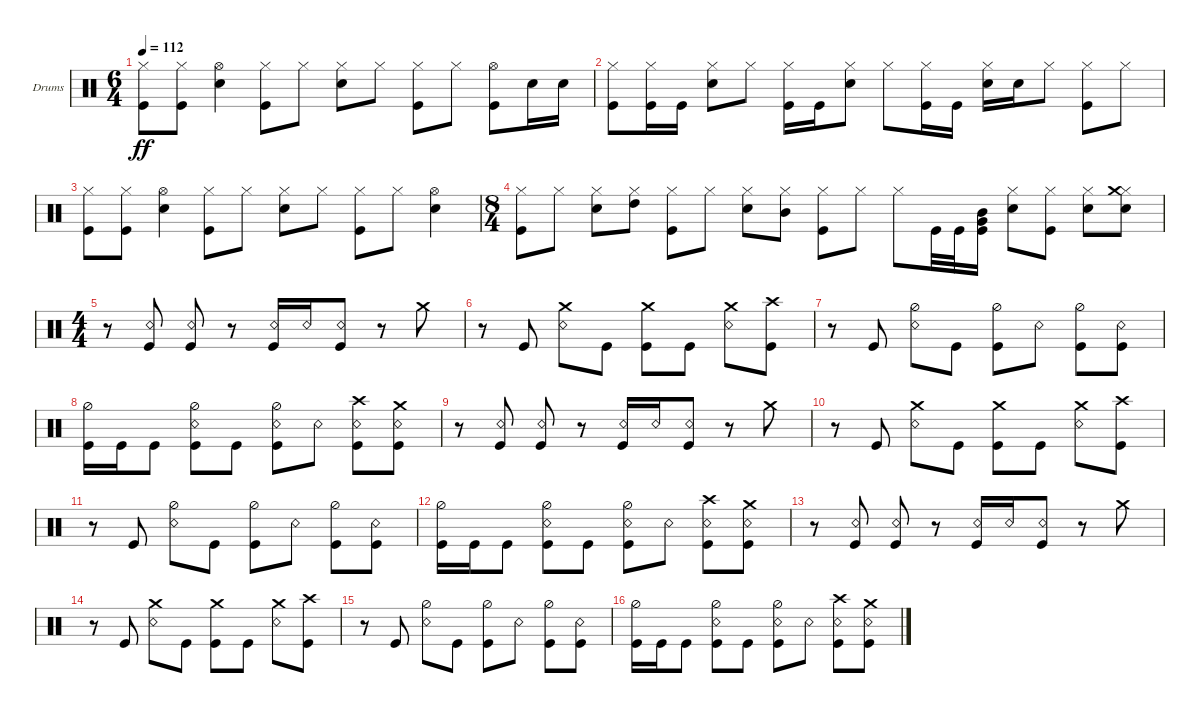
\defaultSystemsLayout 4
\bracketExtendMode groupsimilarinstruments
\firstSystemTrackNameOrientation horizontal
\otherSystemsTrackNameOrientation horizontal
\track ("Drumkit" "Drums") {instrument percussion}
\staff {score}
\articulation defaults
\ts (6 4)
\tempo 112
\clef neutral
\ks c
("Hi-Hat (closed)" "Kick (hit)").8{dy ff} ("Hi-Hat (closed)" "Kick (hit)").8 ("Hi-Hat (open)" "Snare (hit) 2").4 ("Hi-Hat (closed)" "Kick (hit)").8 "Hi-Hat (closed)".8 ("Hi-Hat (closed)" "Snare (hit) 2").8 "Hi-Hat (closed)".8 ("Hi-Hat (closed)" "Kick (hit)").8 "Hi-Hat (closed)".8 ("Kick (hit)" "Hi-Hat (open)").8 "Snare (hit) 2".16 "Snare (hit) 2".16 |
("Kick (hit)" "Hi-Hat (closed)").8 ("Kick (hit)" "Hi-Hat (closed)").16 "Kick (hit)".16 ("Snare (hit) 2" "Hi-Hat (closed)").8 "Hi-Hat (closed)".8 ("Hi-Hat (closed)" "Kick (hit)").16 "Kick (hit)".16 ("Hi-Hat (closed)" "Snare (hit) 2").8 "Hi-Hat (closed)".8 ("Hi-Hat (closed)" "Kick (hit)").16 "Kick (hit)".16 ("Hi-Hat (closed)" "Snare (hit) 2").16 "Snare (hit) 2".16 "Hi-Hat (closed)".8 ("Hi-Hat (closed)" "Kick (hit)").8 "Hi-Hat (closed)".8 |
("Hi-Hat (closed)" "Kick (hit)").8 ("Hi-Hat (closed)" "Kick (hit)").8 ("Hi-Hat (open)" "Snare (hit) 2").4 ("Hi-Hat (closed)" "Kick (hit)").8 "Hi-Hat (closed)".8 ("Hi-Hat (closed)" "Snare (hit) 2").8 "Hi-Hat (closed)".8 ("Hi-Hat (closed)" "Kick (hit)").8 "Hi-Hat (closed)".8 ("Hi-Hat (open)" "Snare (hit) 2").4 |
\ts (8 4)
("Kick (hit)" "Hi-Hat (closed)").8 "Hi-Hat (closed)".8 ("Hi-Hat (closed)" "Snare (hit) 2").8 ("Hi-Hat (closed)" "High Tom (hit)").8 ("Hi-Hat (closed)" "Kick (hit)").8 "Hi-Hat (closed)".8 ("Hi-Hat (closed)" "Snare (hit) 2").8 ("Hi-Hat (closed)" "Mid Tom (hit)").8 ("Hi-Hat (closed)" "Kick (hit)").8 "Hi-Hat (closed)".8 "Hi-Hat (closed)".8 "Kick (hit)".32 "Kick (hit)".32 ("Mid Tom (hit)" "Very Low Tom (hit)" "Kick (hit)").16 ("Snare (hit) 2" "Hi-Hat (closed)").8 ("Kick (hit)" "Hi-Hat (closed)").8 ("Snare (hit) 2" "Hi-Hat (closed)").8 ("Snare (hit) 2" "Hi-Hat (closed)" "Crash medium (hit)").8 |
\ts (4 4)
r.8 ("Snare (rim shot)" "Kick (hit)").8 ("Snare (rim shot)" "Kick (hit)").8 r.8 ("Snare (rim shot)" "Kick (hit)").16 "Snare (rim shot)".16 ("Snare (rim shot)" "Kick (hit)").8 r.8 "Crash medium (hit)".8 |
r.8 "Kick (hit)".8 ("Snare (rim shot)" "Crash medium (hit)").8 "Kick (hit)".8 ("Kick (hit)" "Crash medium (hit)").8 "Kick (hit)".8 ("Snare (rim shot)" "Crash medium (hit)").8 ("Kick (hit)" "Crash high (hit)").8 |
r.8 "Kick (hit)".8 ("Snare (rim shot)" "Hi-Hat (half)").8 "Kick (hit)".8 ("Kick (hit)" "Hi-Hat (half)").8 "Snare (rim shot)".8 ("Kick (hit)" "Hi-Hat (half)").8 ("Snare (rim shot)" "Kick (hit)").8 |
("Kick (hit)" "Hi-Hat (half)").16 "Kick (hit)".16 "Kick (hit)".8 ("Kick (hit)" "Hi-Hat (half)" "Snare (rim shot)").8 "Kick (hit)".8 ("Kick (hit)" "Hi-Hat (half)" "Snare (rim shot)").8 "Snare (rim shot)".8 ("Kick (hit)" "Snare (rim shot)" "Crash high (hit)").8 ("Kick (hit)" "Snare (rim shot)" "Crash medium (hit)").8 |
r.8 ("Snare (rim shot)" "Kick (hit)").8 ("Snare (rim shot)" "Kick (hit)").8 r.8 ("Snare (rim shot)" "Kick (hit)").16 "Snare (rim shot)".16 ("Snare (rim shot)" "Kick (hit)").8 r.8 "Crash medium (hit)".8 |
r.8 "Kick (hit)".8 ("Snare (rim shot)" "Crash medium (hit)").8 "Kick (hit)".8 ("Kick (hit)" "Crash medium (hit)").8 "Kick (hit)".8 ("Snare (rim shot)" "Crash medium (hit)").8 ("Kick (hit)" "Crash high (hit)").8 |
r.8 "Kick (hit)".8 ("Snare (rim shot)" "Hi-Hat (half)").8 "Kick (hit)".8 ("Kick (hit)" "Hi-Hat (half)").8 "Snare (rim shot)".8 ("Kick (hit)" "Hi-Hat (half)").8 ("Snare (rim shot)" "Kick (hit)").8 |
("Kick (hit)" "Hi-Hat (half)").16 "Kick (hit)".16 "Kick (hit)".8 ("Kick (hit)" "Hi-Hat (half)" "Snare (rim shot)").8 "Kick (hit)".8 ("Kick (hit)" "Hi-Hat (half)" "Snare (rim shot)").8 "Snare (rim shot)".8 ("Kick (hit)" "Snare (rim shot)" "Crash high (hit)").8 ("Kick (hit)" "Snare (rim shot)" "Crash medium (hit)").8 |
r.8 ("Snare (rim shot)" "Kick (hit)").8 ("Snare (rim shot)" "Kick (hit)").8 r.8 ("Snare (rim shot)" "Kick (hit)").16 "Snare (rim shot)".16 ("Snare (rim shot)" "Kick (hit)").8 r.8 "Crash medium (hit)".8 |
r.8 "Kick (hit)".8 ("Snare (rim shot)" "Crash medium (hit)").8 "Kick (hit)".8 ("Kick (hit)" "Crash medium (hit)").8 "Kick (hit)".8 ("Snare (rim shot)" "Crash medium (hit)").8 ("Kick (hit)" "Crash high (hit)").8 |
r.8 "Kick (hit)".8 ("Snare (rim shot)" "Hi-Hat (half)").8 "Kick (hit)".8 ("Kick (hit)" "Hi-Hat (half)").8 "Snare (rim shot)".8 ("Kick (hit)" "Hi-Hat (half)").8 ("Snare (rim shot)" "Kick (hit)").8 |
("Kick (hit)" "Hi-Hat (half)").16 "Kick (hit)".16 "Kick (hit)".8 ("Kick (hit)" "Hi-Hat (half)" "Snare (rim shot)").8 "Kick (hit)".8 ("Kick (hit)" "Hi-Hat (half)" "Snare (rim shot)").8 "Snare (rim shot)".8 ("Kick (hit)" "Snare (rim shot)" "Crash high (hit)").8 ("Kick (hit)" "Snare (rim shot)" "Crash medium (hit)").8
